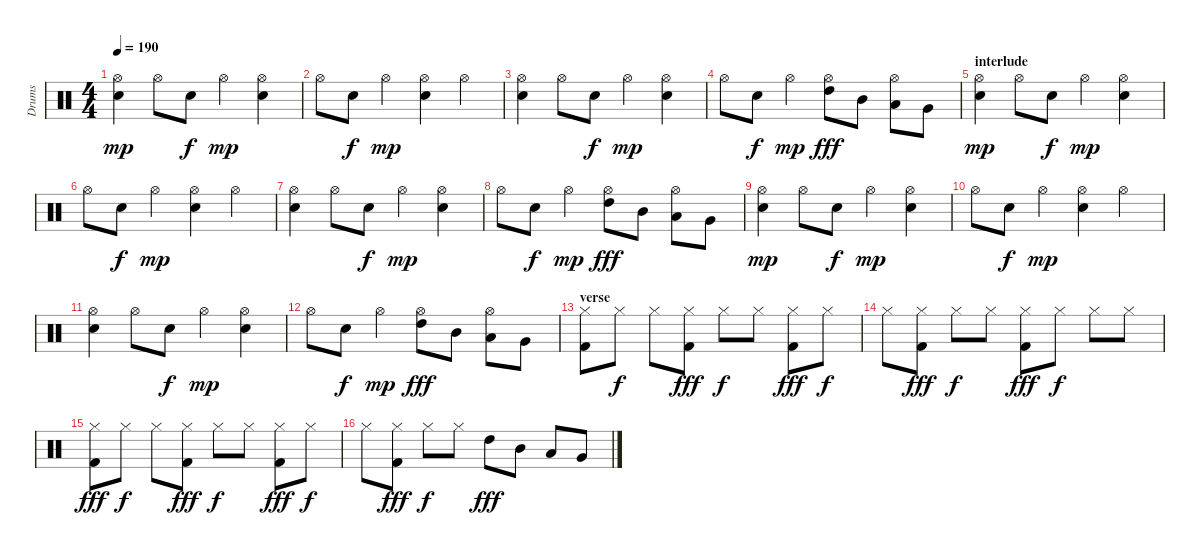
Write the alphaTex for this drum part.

\track ("Drums" "Drums") {instrument percussion}
\staff {score}
\articulation defaults
\ts (4 4)
\tempo 190
\clef neutral
\ks c
("Hi-Hat (open)" "Snare (hit) 2").4{dy mp} "Hi-Hat (open)".8 "Snare (hit) 2".8{dy f} "Hi-Hat (open)".4{dy mp} ("Hi-Hat (open)" "Snare (hit) 2").4 |
"Hi-Hat (open)".8 "Snare (hit) 2".8{dy f} "Hi-Hat (open)".4{dy mp} ("Hi-Hat (open)" "Snare (hit) 2").4 "Hi-Hat (open)".4 |
("Hi-Hat (open)" "Snare (hit) 2").4 "Hi-Hat (open)".8 "Snare (hit) 2".8{dy f} "Hi-Hat (open)".4{dy mp} ("Hi-Hat (open)" "Snare (hit) 2").4 |
"Hi-Hat (open)".8 "Snare (hit) 2".8{dy f} "Hi-Hat (open)".4{dy mp} ("Hi-Hat (open)" "High Tom (hit)").8{dy fff} "Mid Tom (hit)".8 ("Hi-Hat (open)" "Low Tom (hit)").8 "Very Low Tom (hit)".8 |
\section ("" "interlude")
("Hi-Hat (open)" "Snare (hit) 2").4{dy mp} "Hi-Hat (open)".8 "Snare (hit) 2".8{dy f} "Hi-Hat (open)".4{dy mp} ("Hi-Hat (open)" "Snare (hit) 2").4 |
"Hi-Hat (open)".8 "Snare (hit) 2".8{dy f} "Hi-Hat (open)".4{dy mp} ("Hi-Hat (open)" "Snare (hit) 2").4 "Hi-Hat (open)".4 |
("Hi-Hat (open)" "Snare (hit) 2").4 "Hi-Hat (open)".8 "Snare (hit) 2".8{dy f} "Hi-Hat (open)".4{dy mp} ("Hi-Hat (open)" "Snare (hit) 2").4 |
"Hi-Hat (open)".8 "Snare (hit) 2".8{dy f} "Hi-Hat (open)".4{dy mp} ("Hi-Hat (open)" "High Tom (hit)").8{dy fff} "Mid Tom (hit)".8 ("Hi-Hat (open)" "Low Tom (hit)").8 "Very Low Tom (hit)".8 |
("Hi-Hat (open)" "Snare (hit) 2").4{dy mp} "Hi-Hat (open)".8 "Snare (hit) 2".8{dy f} "Hi-Hat (open)".4{dy mp} ("Hi-Hat (open)" "Snare (hit) 2").4 |
"Hi-Hat (open)".8 "Snare (hit) 2".8{dy f} "Hi-Hat (open)".4{dy mp} ("Hi-Hat (open)" "Snare (hit) 2").4 "Hi-Hat (open)".4 |
("Hi-Hat (open)" "Snare (hit) 2").4 "Hi-Hat (open)".8 "Snare (hit) 2".8{dy f} "Hi-Hat (open)".4{dy mp} ("Hi-Hat (open)" "Snare (hit) 2").4 |
"Hi-Hat (open)".8 "Snare (hit) 2".8{dy f} "Hi-Hat (open)".4{dy mp} ("Hi-Hat (open)" "High Tom (hit)").8{dy fff} "Mid Tom (hit)".8 ("Hi-Hat (open)" "Low Tom (hit)").8 "Very Low Tom (hit)".8 |
\section ("" "verse")
("Hi-Hat (closed)" "Kick (hit) 2").8 "Hi-Hat (closed)".8{dy f} "Hi-Hat (closed)".8 ("Hi-Hat (closed)" "Kick (hit) 2").8{dy fff} "Hi-Hat (closed)".8{dy f} "Hi-Hat (closed)".8 ("Hi-Hat (closed)" "Kick (hit) 2").8{dy fff} "Hi-Hat (closed)".8{dy f} |
"Hi-Hat (closed)".8 ("Hi-Hat (closed)" "Kick (hit) 2").8{dy fff} "Hi-Hat (closed)".8{dy f} "Hi-Hat (closed)".8 ("Hi-Hat (closed)" "Kick (hit) 2").8{dy fff} "Hi-Hat (closed)".8{dy f} "Hi-Hat (closed)".8 "Hi-Hat (closed)".8 |
("Hi-Hat (closed)" "Kick (hit) 2").8{dy fff} "Hi-Hat (closed)".8{dy f} "Hi-Hat (closed)".8 ("Hi-Hat (closed)" "Kick (hit) 2").8{dy fff} "Hi-Hat (closed)".8{dy f} "Hi-Hat (closed)".8 ("Hi-Hat (closed)" "Kick (hit) 2").8{dy fff} "Hi-Hat (closed)".8{dy f} |
"Hi-Hat (closed)".8 ("Hi-Hat (closed)" "Kick (hit) 2").8{dy fff} "Hi-Hat (closed)".8{dy f} "Hi-Hat (closed)".8 "High Tom (hit)".8{dy fff} "Mid Tom (hit)".8 "Low Tom (hit)".8 "Very Low Tom (hit)".8
